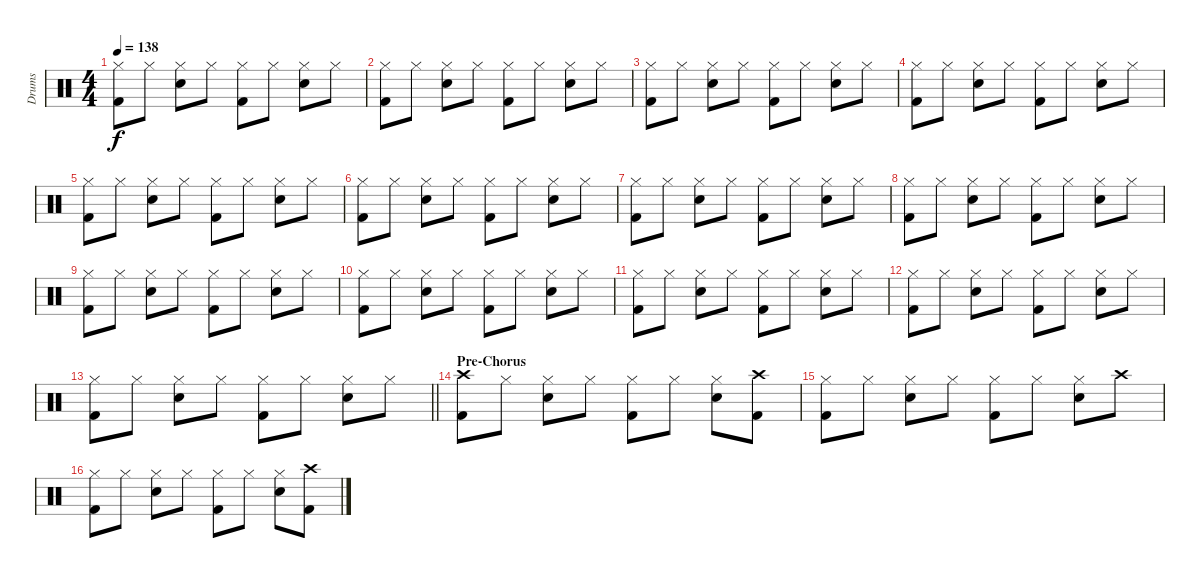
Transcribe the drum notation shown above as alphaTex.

\track ("Drums" "Drums") {instrument percussion}
\staff {score}
\articulation defaults
\ts (4 4)
\tempo 138
\clef neutral
\ks c
("Hi-Hat (closed)" "Kick (hit) 2").8{dy f} "Hi-Hat (closed)".8 ("Hi-Hat (closed)" "Snare (hit) 2").8 "Hi-Hat (closed)".8 ("Hi-Hat (closed)" "Kick (hit) 2").8 "Hi-Hat (closed)".8 ("Hi-Hat (closed)" "Snare (hit) 2").8 "Hi-Hat (closed)".8 |
("Hi-Hat (closed)" "Kick (hit) 2").8 "Hi-Hat (closed)".8 ("Hi-Hat (closed)" "Snare (hit) 2").8 "Hi-Hat (closed)".8 ("Hi-Hat (closed)" "Kick (hit) 2").8 "Hi-Hat (closed)".8 ("Hi-Hat (closed)" "Snare (hit) 2").8 "Hi-Hat (closed)".8 |
("Hi-Hat (closed)" "Kick (hit) 2").8 "Hi-Hat (closed)".8 ("Hi-Hat (closed)" "Snare (hit) 2").8 "Hi-Hat (closed)".8 ("Hi-Hat (closed)" "Kick (hit) 2").8 "Hi-Hat (closed)".8 ("Hi-Hat (closed)" "Snare (hit) 2").8 "Hi-Hat (closed)".8 |
("Hi-Hat (closed)" "Kick (hit) 2").8 "Hi-Hat (closed)".8 ("Hi-Hat (closed)" "Snare (hit) 2").8 "Hi-Hat (closed)".8 ("Hi-Hat (closed)" "Kick (hit) 2").8 "Hi-Hat (closed)".8 ("Hi-Hat (closed)" "Snare (hit) 2").8 "Hi-Hat (closed)".8 |
("Hi-Hat (closed)" "Kick (hit) 2").8 "Hi-Hat (closed)".8 ("Hi-Hat (closed)" "Snare (hit) 2").8 "Hi-Hat (closed)".8 ("Hi-Hat (closed)" "Kick (hit) 2").8 "Hi-Hat (closed)".8 ("Hi-Hat (closed)" "Snare (hit) 2").8 "Hi-Hat (closed)".8 |
("Hi-Hat (closed)" "Kick (hit) 2").8 "Hi-Hat (closed)".8 ("Hi-Hat (closed)" "Snare (hit) 2").8 "Hi-Hat (closed)".8 ("Hi-Hat (closed)" "Kick (hit) 2").8 "Hi-Hat (closed)".8 ("Hi-Hat (closed)" "Snare (hit) 2").8 "Hi-Hat (closed)".8 |
("Hi-Hat (closed)" "Kick (hit) 2").8 "Hi-Hat (closed)".8 ("Hi-Hat (closed)" "Snare (hit) 2").8 "Hi-Hat (closed)".8 ("Hi-Hat (closed)" "Kick (hit) 2").8 "Hi-Hat (closed)".8 ("Hi-Hat (closed)" "Snare (hit) 2").8 "Hi-Hat (closed)".8 |
("Hi-Hat (closed)" "Kick (hit) 2").8 "Hi-Hat (closed)".8 ("Hi-Hat (closed)" "Snare (hit) 2").8 "Hi-Hat (closed)".8 ("Hi-Hat (closed)" "Kick (hit) 2").8 "Hi-Hat (closed)".8 ("Hi-Hat (closed)" "Snare (hit) 2").8 "Hi-Hat (closed)".8 |
("Hi-Hat (closed)" "Kick (hit) 2").8 "Hi-Hat (closed)".8 ("Hi-Hat (closed)" "Snare (hit) 2").8 "Hi-Hat (closed)".8 ("Hi-Hat (closed)" "Kick (hit) 2").8 "Hi-Hat (closed)".8 ("Hi-Hat (closed)" "Snare (hit) 2").8 "Hi-Hat (closed)".8 |
("Hi-Hat (closed)" "Kick (hit) 2").8 "Hi-Hat (closed)".8 ("Hi-Hat (closed)" "Snare (hit) 2").8 "Hi-Hat (closed)".8 ("Hi-Hat (closed)" "Kick (hit) 2").8 "Hi-Hat (closed)".8 ("Hi-Hat (closed)" "Snare (hit) 2").8 "Hi-Hat (closed)".8 |
("Hi-Hat (closed)" "Kick (hit) 2").8 "Hi-Hat (closed)".8 ("Hi-Hat (closed)" "Snare (hit) 2").8 "Hi-Hat (closed)".8 ("Hi-Hat (closed)" "Kick (hit) 2").8 "Hi-Hat (closed)".8 ("Hi-Hat (closed)" "Snare (hit) 2").8 "Hi-Hat (closed)".8 |
("Hi-Hat (closed)" "Kick (hit) 2").8 "Hi-Hat (closed)".8 ("Hi-Hat (closed)" "Snare (hit) 2").8 "Hi-Hat (closed)".8 ("Hi-Hat (closed)" "Kick (hit) 2").8 "Hi-Hat (closed)".8 ("Hi-Hat (closed)" "Snare (hit) 2").8 "Hi-Hat (closed)".8 |
\barLineRight lightlight
("Hi-Hat (closed)" "Kick (hit) 2").8 "Hi-Hat (closed)".8 ("Hi-Hat (closed)" "Snare (hit) 2").8 "Hi-Hat (closed)".8 ("Hi-Hat (closed)" "Kick (hit) 2").8 "Hi-Hat (closed)".8 ("Hi-Hat (closed)" "Snare (hit) 2").8 "Hi-Hat (closed)".8 |
\section ("" "Pre-Chorus")
("Crash high (hit)" "Kick (hit) 2").8 "Hi-Hat (closed)".8 ("Hi-Hat (closed)" "Snare (hit) 2").8 "Hi-Hat (closed)".8 ("Hi-Hat (closed)" "Kick (hit) 2").8 "Hi-Hat (closed)".8 ("Hi-Hat (closed)" "Snare (hit) 2").8 ("Crash high (hit)" "Kick (hit) 2").8 |
("Hi-Hat (closed)" "Kick (hit) 2").8 "Hi-Hat (closed)".8 ("Hi-Hat (closed)" "Snare (hit) 2").8 "Hi-Hat (closed)".8 ("Hi-Hat (closed)" "Kick (hit) 2").8 "Hi-Hat (closed)".8 ("Hi-Hat (closed)" "Snare (hit) 2").8 "Crash high (hit)".8 |
("Hi-Hat (closed)" "Kick (hit) 2").8 "Hi-Hat (closed)".8 ("Hi-Hat (closed)" "Snare (hit) 2").8 "Hi-Hat (closed)".8 ("Hi-Hat (closed)" "Kick (hit) 2").8 "Hi-Hat (closed)".8 ("Hi-Hat (closed)" "Snare (hit) 2").8 ("Crash high (hit)" "Kick (hit) 2").8
